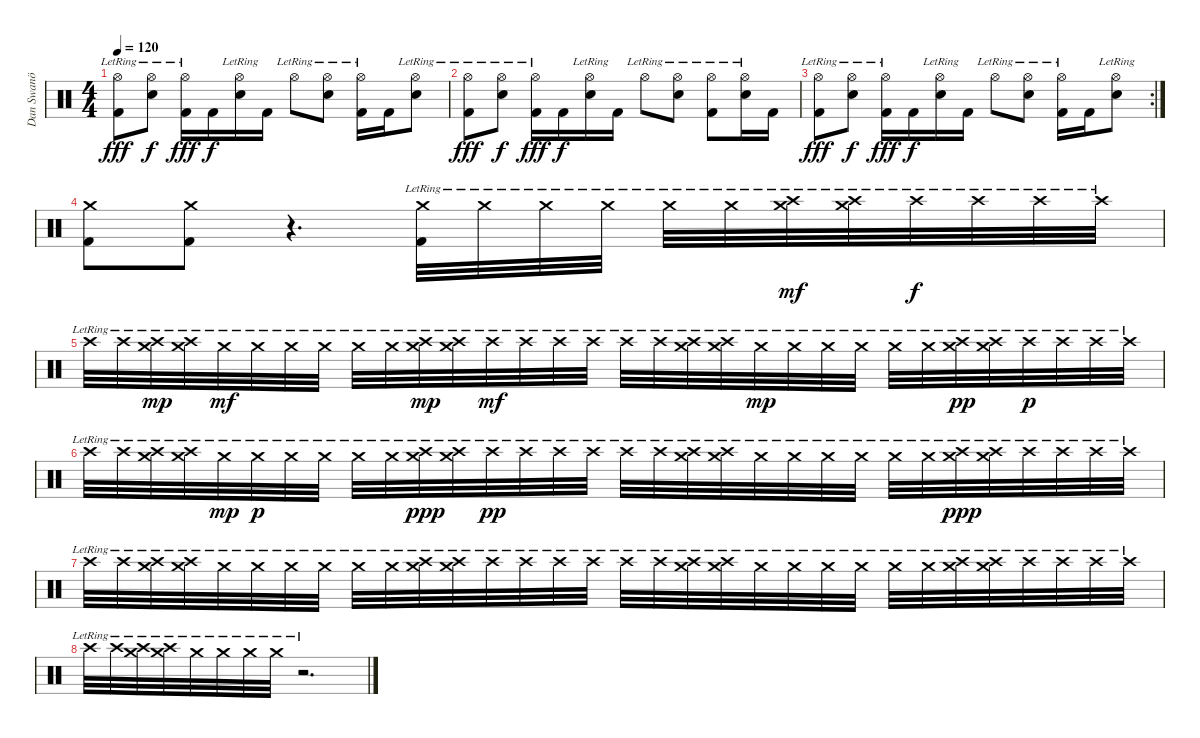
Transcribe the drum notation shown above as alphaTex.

\track ("Dan Swanö" "Dan Swanö") {instrument percussion}
\staff {score}
\articulation defaults
\ts (4 4)
\tempo 120
\clef neutral
\ks c
("Hi-Hat (open)"{lr} "Kick (hit) 2").8{dy fff} ("Hi-Hat (open)"{lr} "Electric Snare (hit)").8{dy f} ("Hi-Hat (open)"{lr} "Kick (hit) 2").16{dy fff} "Kick (hit) 2".16{dy f} ("Hi-Hat (open)"{lr} "Electric Snare (hit)").16 "Kick (hit) 2".16 "Hi-Hat (open)"{lr}.8 ("Hi-Hat (open)"{lr} "Electric Snare (hit)").8 ("Hi-Hat (open)"{lr} "Kick (hit) 2").16 "Kick (hit) 2".16 ("Hi-Hat (open)"{lr} "Electric Snare (hit)").8 |
("Hi-Hat (open)"{lr} "Kick (hit) 2").8{dy fff} ("Hi-Hat (open)"{lr} "Electric Snare (hit)").8{dy f} ("Hi-Hat (open)"{lr} "Kick (hit) 2").16{dy fff} "Kick (hit) 2".16{dy f} ("Hi-Hat (open)"{lr} "Electric Snare (hit)").16 "Kick (hit) 2".16 "Hi-Hat (open)"{lr}.8 ("Hi-Hat (open)"{lr} "Electric Snare (hit)").8 ("Hi-Hat (open)"{lr} "Kick (hit) 2").8 ("Hi-Hat (open)"{lr} "Electric Snare (hit)").16 "Kick (hit) 2".16 |
\rc 2
("Hi-Hat (open)"{lr} "Kick (hit) 2").8{dy fff} ("Hi-Hat (open)"{lr} "Electric Snare (hit)").8{dy f} ("Hi-Hat (open)"{lr} "Kick (hit) 2").16{dy fff} "Kick (hit) 2".16{dy f} ("Hi-Hat (open)"{lr} "Electric Snare (hit)").16 "Kick (hit) 2".16 "Hi-Hat (open)"{lr}.8 ("Hi-Hat (open)"{lr} "Electric Snare (hit)").8 ("Hi-Hat (open)"{lr} "Kick (hit) 2").16 "Kick (hit) 2".16 ("Hi-Hat (open)"{lr} "Electric Snare (hit)").8 |
("Crash medium (hit)" "Kick (hit) 2").8 ("Crash medium (hit)" "Kick (hit) 2").8 r.4{d} ("Crash medium (hit)"{lr} "Kick (hit) 2").32 "Crash medium (hit)"{lr}.32 "Crash medium (hit)"{lr}.32 "Crash medium (hit)"{lr}.32 "Crash medium (hit)"{lr}.32 "Crash medium (hit)"{lr}.32 ("Crash medium (hit)"{lr} "Crash high (hit)"{lr}).32{dy mf} ("Crash medium (hit)"{lr} "Crash high (hit)"{lr}).32 "Crash high (hit)"{lr}.32{dy f} "Crash high (hit)"{lr}.32 "Crash high (hit)"{lr}.32 "Crash high (hit)"{lr}.32 |
"Crash high (hit)"{lr}.32 "Crash high (hit)"{lr}.32 ("Crash medium (hit)"{lr} "Crash high (hit)"{lr}).32{dy mp} ("Crash medium (hit)"{lr} "Crash high (hit)"{lr}).32 "Crash medium (hit)"{lr}.32{dy mf} "Crash medium (hit)"{lr}.32 "Crash medium (hit)"{lr}.32 "Crash medium (hit)"{lr}.32 "Crash medium (hit)"{lr}.32 "Crash medium (hit)"{lr}.32 ("Crash medium (hit)"{lr} "Crash high (hit)"{lr}).32{dy mp} ("Crash medium (hit)"{lr} "Crash high (hit)"{lr}).32 "Crash high (hit)"{lr}.32{dy mf} "Crash high (hit)"{lr}.32 "Crash high (hit)"{lr}.32 "Crash high (hit)"{lr}.32 "Crash high (hit)"{lr}.32 "Crash high (hit)"{lr}.32 ("Crash medium (hit)"{lr} "Crash high (hit)"{lr}).32 ("Crash medium (hit)"{lr} "Crash high (hit)"{lr}).32 "Crash medium (hit)"{lr}.32{dy mp} "Crash medium (hit)"{lr}.32 "Crash medium (hit)"{lr}.32 "Crash medium (hit)"{lr}.32 "Crash medium (hit)"{lr}.32 "Crash medium (hit)"{lr}.32 ("Crash medium (hit)"{lr} "Crash high (hit)"{lr}).32{dy pp} ("Crash medium (hit)"{lr} "Crash high (hit)"{lr}).32 "Crash high (hit)"{lr}.32{dy p} "Crash high (hit)"{lr}.32 "Crash high (hit)"{lr}.32 "Crash high (hit)"{lr}.32 |
"Crash high (hit)"{lr}.32 "Crash high (hit)"{lr}.32 ("Crash medium (hit)"{lr} "Crash high (hit)"{lr}).32 ("Crash medium (hit)"{lr} "Crash high (hit)"{lr}).32 "Crash medium (hit)"{lr}.32{dy mp} "Crash medium (hit)"{lr}.32{dy p} "Crash medium (hit)"{lr}.32 "Crash medium (hit)"{lr}.32 "Crash medium (hit)"{lr}.32 "Crash medium (hit)"{lr}.32 ("Crash medium (hit)"{lr} "Crash high (hit)"{lr}).32{dy ppp} ("Crash medium (hit)"{lr} "Crash high (hit)"{lr}).32 "Crash high (hit)"{lr}.32{dy pp} "Crash high (hit)"{lr}.32 "Crash high (hit)"{lr}.32 "Crash high (hit)"{lr}.32 "Crash high (hit)"{lr}.32 "Crash high (hit)"{lr}.32 ("Crash medium (hit)"{lr} "Crash high (hit)"{lr}).32 ("Crash medium (hit)"{lr} "Crash high (hit)"{lr}).32 "Crash medium (hit)"{lr}.32 "Crash medium (hit)"{lr}.32 "Crash medium (hit)"{lr}.32 "Crash medium (hit)"{lr}.32 "Crash medium (hit)"{lr}.32 "Crash medium (hit)"{lr}.32 ("Crash medium (hit)"{lr} "Crash high (hit)"{lr}).32{dy ppp} ("Crash medium (hit)"{lr} "Crash high (hit)"{lr}).32 "Crash high (hit)"{lr}.32 "Crash high (hit)"{lr}.32 "Crash high (hit)"{lr}.32 "Crash high (hit)"{lr}.32 |
"Crash high (hit)"{lr}.32 "Crash high (hit)"{lr}.32 ("Crash medium (hit)"{lr} "Crash high (hit)"{lr}).32 ("Crash medium (hit)"{lr} "Crash high (hit)"{lr}).32 "Crash medium (hit)"{lr}.32 "Crash medium (hit)"{lr}.32 "Crash medium (hit)"{lr}.32 "Crash medium (hit)"{lr}.32 "Crash medium (hit)"{lr}.32 "Crash medium (hit)"{lr}.32 ("Crash medium (hit)"{lr} "Crash high (hit)"{lr}).32 ("Crash medium (hit)"{lr} "Crash high (hit)"{lr}).32 "Crash high (hit)"{lr}.32 "Crash high (hit)"{lr}.32 "Crash high (hit)"{lr}.32 "Crash high (hit)"{lr}.32 "Crash high (hit)"{lr}.32 "Crash high (hit)"{lr}.32 ("Crash medium (hit)"{lr} "Crash high (hit)"{lr}).32 ("Crash medium (hit)"{lr} "Crash high (hit)"{lr}).32 "Crash medium (hit)"{lr}.32 "Crash medium (hit)"{lr}.32 "Crash medium (hit)"{lr}.32 "Crash medium (hit)"{lr}.32 "Crash medium (hit)"{lr}.32 "Crash medium (hit)"{lr}.32 ("Crash medium (hit)"{lr} "Crash high (hit)"{lr}).32 ("Crash medium (hit)"{lr} "Crash high (hit)"{lr}).32 "Crash high (hit)"{lr}.32 "Crash high (hit)"{lr}.32 "Crash high (hit)"{lr}.32 "Crash high (hit)"{lr}.32 |
"Crash high (hit)"{lr}.32 "Crash high (hit)"{lr}.32 ("Crash medium (hit)"{lr} "Crash high (hit)"{lr}).32 ("Crash medium (hit)"{lr} "Crash high (hit)"{lr}).32 "Crash medium (hit)"{lr}.32 "Crash medium (hit)"{lr}.32 "Crash medium (hit)"{lr}.32 "Crash medium (hit)"{lr}.32 r.2{d}
